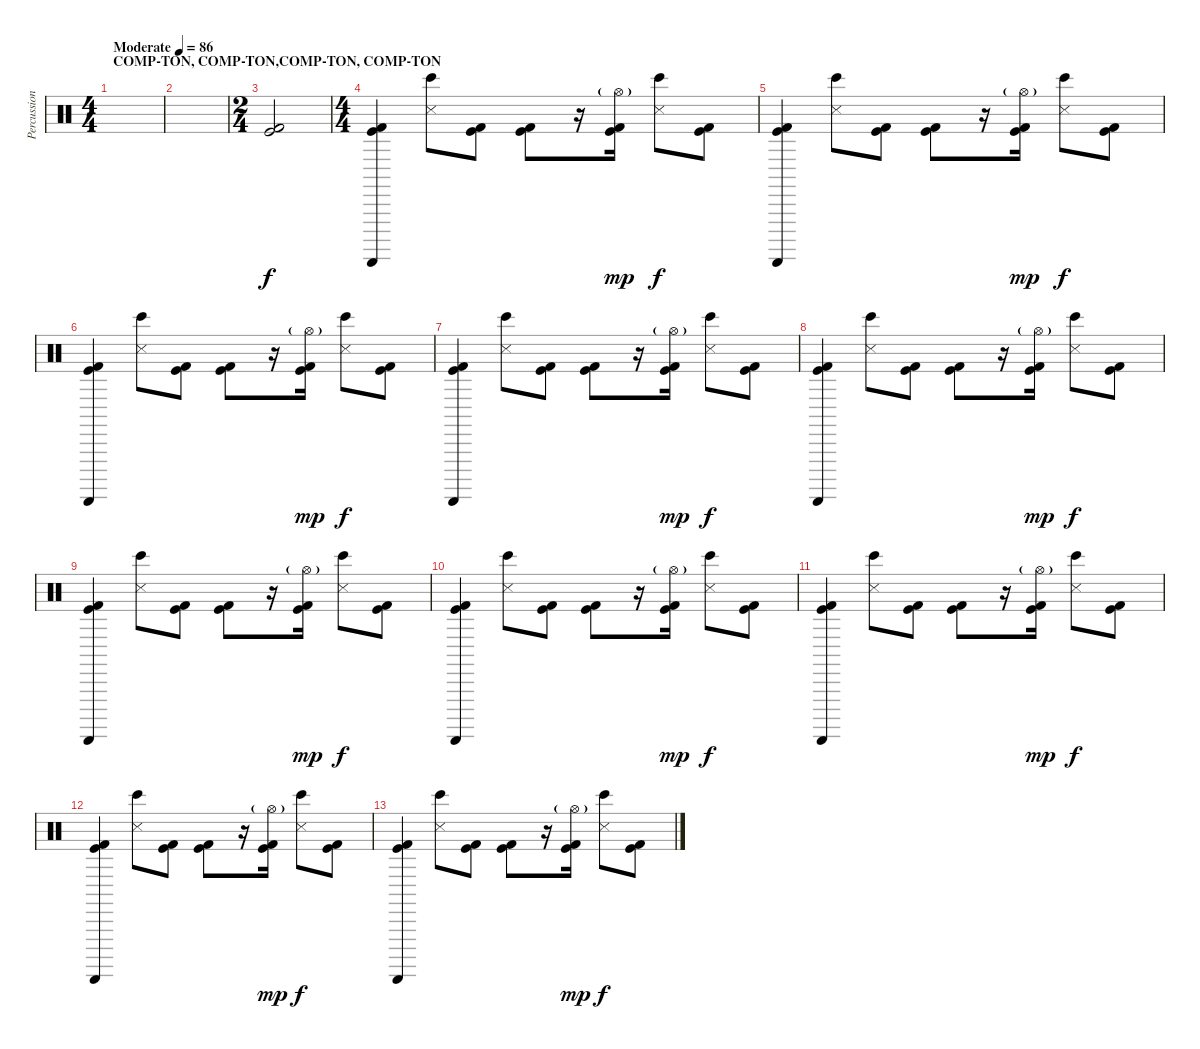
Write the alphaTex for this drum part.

\track ("Percussion" "Percussion") {instrument percussion}
\staff {score}
\articulation defaults
\ts (4 4)
\section ("" "COMP-TON, COMP-TON,COMP-TON, COMP-TON")
\tempo (86 "Moderate")
\clef neutral
\ks c
|
|
\ts (2 4)
("Kick (hit)" "Kick (hit) 2").2 |
\ts (4 4)
("Guiro (scrap-return)" "Kick (hit)" "Kick (hit) 2").4 ("Snare (side stick) 3" "Bongo High (hit)").8 ("Kick (hit)" "Kick (hit) 2").8 ("Kick (hit)" "Kick (hit) 2").8 r.16 ("Hi-Hat (open)"{g} "Kick (hit)" "Kick (hit) 2").16{dy mp} ("Snare (side stick) 3" "Bongo High (hit)").8{dy f} ("Kick (hit)" "Kick (hit) 2").8 |
("Guiro (scrap-return)" "Kick (hit)" "Kick (hit) 2").4 ("Snare (side stick) 3" "Bongo High (hit)").8 ("Kick (hit)" "Kick (hit) 2").8 ("Kick (hit)" "Kick (hit) 2").8 r.16 ("Hi-Hat (open)"{g} "Kick (hit)" "Kick (hit) 2").16{dy mp} ("Snare (side stick) 3" "Bongo High (hit)").8{dy f} ("Kick (hit)" "Kick (hit) 2").8 |
("Guiro (scrap-return)" "Kick (hit)" "Kick (hit) 2").4 ("Snare (side stick) 3" "Bongo High (hit)").8 ("Kick (hit)" "Kick (hit) 2").8 ("Kick (hit)" "Kick (hit) 2").8 r.16 ("Hi-Hat (open)"{g} "Kick (hit)" "Kick (hit) 2").16{dy mp} ("Snare (side stick) 3" "Bongo High (hit)").8{dy f} ("Kick (hit)" "Kick (hit) 2").8 |
("Guiro (scrap-return)" "Kick (hit)" "Kick (hit) 2").4 ("Snare (side stick) 3" "Bongo High (hit)").8 ("Kick (hit)" "Kick (hit) 2").8 ("Kick (hit)" "Kick (hit) 2").8 r.16 ("Hi-Hat (open)"{g} "Kick (hit)" "Kick (hit) 2").16{dy mp} ("Snare (side stick) 3" "Bongo High (hit)").8{dy f} ("Kick (hit)" "Kick (hit) 2").8 |
("Guiro (scrap-return)" "Kick (hit)" "Kick (hit) 2").4 ("Snare (side stick) 3" "Bongo High (hit)").8 ("Kick (hit)" "Kick (hit) 2").8 ("Kick (hit)" "Kick (hit) 2").8 r.16 ("Hi-Hat (open)"{g} "Kick (hit)" "Kick (hit) 2").16{dy mp} ("Snare (side stick) 3" "Bongo High (hit)").8{dy f} ("Kick (hit)" "Kick (hit) 2").8 |
("Guiro (scrap-return)" "Kick (hit)" "Kick (hit) 2").4 ("Snare (side stick) 3" "Bongo High (hit)").8 ("Kick (hit)" "Kick (hit) 2").8 ("Kick (hit)" "Kick (hit) 2").8 r.16 ("Hi-Hat (open)"{g} "Kick (hit)" "Kick (hit) 2").16{dy mp} ("Snare (side stick) 3" "Bongo High (hit)").8{dy f} ("Kick (hit)" "Kick (hit) 2").8 |
("Guiro (scrap-return)" "Kick (hit)" "Kick (hit) 2").4 ("Snare (side stick) 3" "Bongo High (hit)").8 ("Kick (hit)" "Kick (hit) 2").8 ("Kick (hit)" "Kick (hit) 2").8 r.16 ("Hi-Hat (open)"{g} "Kick (hit)" "Kick (hit) 2").16{dy mp} ("Snare (side stick) 3" "Bongo High (hit)").8{dy f} ("Kick (hit)" "Kick (hit) 2").8 |
("Guiro (scrap-return)" "Kick (hit)" "Kick (hit) 2").4 ("Snare (side stick) 3" "Bongo High (hit)").8 ("Kick (hit)" "Kick (hit) 2").8 ("Kick (hit)" "Kick (hit) 2").8 r.16 ("Hi-Hat (open)"{g} "Kick (hit)" "Kick (hit) 2").16{dy mp} ("Snare (side stick) 3" "Bongo High (hit)").8{dy f} ("Kick (hit)" "Kick (hit) 2").8 |
("Guiro (scrap-return)" "Kick (hit)" "Kick (hit) 2").4 ("Snare (side stick) 3" "Bongo High (hit)").8 ("Kick (hit)" "Kick (hit) 2").8 ("Kick (hit)" "Kick (hit) 2").8 r.16 ("Hi-Hat (open)"{g} "Kick (hit)" "Kick (hit) 2").16{dy mp} ("Snare (side stick) 3" "Bongo High (hit)").8{dy f} ("Kick (hit)" "Kick (hit) 2").8 |
("Guiro (scrap-return)" "Kick (hit)" "Kick (hit) 2").4 ("Snare (side stick) 3" "Bongo High (hit)").8 ("Kick (hit)" "Kick (hit) 2").8 ("Kick (hit)" "Kick (hit) 2").8 r.16 ("Hi-Hat (open)"{g} "Kick (hit)" "Kick (hit) 2").16{dy mp} ("Snare (side stick) 3" "Bongo High (hit)").8{dy f} ("Kick (hit)" "Kick (hit) 2").8
